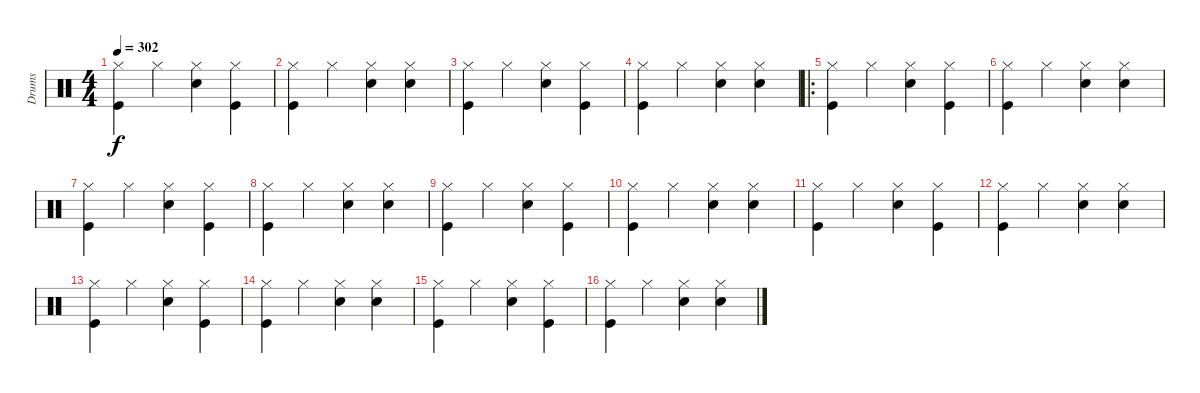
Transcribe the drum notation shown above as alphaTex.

\track ("Drums" "Drums") {instrument percussion}
\staff {score}
\articulation defaults
\ts (4 4)
\tempo 302
\clef neutral
\ks c
("Hi-Hat (closed)" "Kick (hit)").4{dy f} "Hi-Hat (closed)".4 ("Hi-Hat (closed)" "Snare (hit) 2").4 ("Hi-Hat (closed)" "Kick (hit)").4 |
("Hi-Hat (closed)" "Kick (hit)").4 "Hi-Hat (closed)".4 ("Hi-Hat (closed)" "Snare (hit) 2").4 ("Hi-Hat (closed)" "Snare (hit) 2").4 |
("Hi-Hat (closed)" "Kick (hit)").4 "Hi-Hat (closed)".4 ("Hi-Hat (closed)" "Snare (hit) 2").4 ("Kick (hit)" "Hi-Hat (closed)").4 |
("Hi-Hat (closed)" "Kick (hit)").4 "Hi-Hat (closed)".4 ("Hi-Hat (closed)" "Snare (hit) 2").4 ("Hi-Hat (closed)" "Snare (hit) 2").4 |
\ro
("Hi-Hat (closed)" "Kick (hit)").4 "Hi-Hat (closed)".4 ("Hi-Hat (closed)" "Snare (hit) 2").4 ("Kick (hit)" "Hi-Hat (closed)").4 |
("Hi-Hat (closed)" "Kick (hit)").4 "Hi-Hat (closed)".4 ("Hi-Hat (closed)" "Snare (hit) 2").4 ("Hi-Hat (closed)" "Snare (hit) 2").4 |
("Hi-Hat (closed)" "Kick (hit)").4 "Hi-Hat (closed)".4 ("Hi-Hat (closed)" "Snare (hit) 2").4 ("Kick (hit)" "Hi-Hat (closed)").4 |
("Hi-Hat (closed)" "Kick (hit)").4 "Hi-Hat (closed)".4 ("Hi-Hat (closed)" "Snare (hit) 2").4 ("Hi-Hat (closed)" "Snare (hit) 2").4 |
("Hi-Hat (closed)" "Kick (hit)").4 "Hi-Hat (closed)".4 ("Hi-Hat (closed)" "Snare (hit) 2").4 ("Kick (hit)" "Hi-Hat (closed)").4 |
("Hi-Hat (closed)" "Kick (hit)").4 "Hi-Hat (closed)".4 ("Hi-Hat (closed)" "Snare (hit) 2").4 ("Hi-Hat (closed)" "Snare (hit) 2").4 |
("Hi-Hat (closed)" "Kick (hit)").4 "Hi-Hat (closed)".4 ("Hi-Hat (closed)" "Snare (hit) 2").4 ("Kick (hit)" "Hi-Hat (closed)").4 |
("Hi-Hat (closed)" "Kick (hit)").4 "Hi-Hat (closed)".4 ("Hi-Hat (closed)" "Snare (hit) 2").4 ("Hi-Hat (closed)" "Snare (hit) 2").4 |
("Hi-Hat (closed)" "Kick (hit)").4 "Hi-Hat (closed)".4 ("Hi-Hat (closed)" "Snare (hit) 2").4 ("Kick (hit)" "Hi-Hat (closed)").4 |
("Hi-Hat (closed)" "Kick (hit)").4 "Hi-Hat (closed)".4 ("Hi-Hat (closed)" "Snare (hit) 2").4 ("Hi-Hat (closed)" "Snare (hit) 2").4 |
("Hi-Hat (closed)" "Kick (hit)").4 "Hi-Hat (closed)".4 ("Hi-Hat (closed)" "Snare (hit) 2").4 ("Kick (hit)" "Hi-Hat (closed)").4 |
("Hi-Hat (closed)" "Kick (hit)").4 "Hi-Hat (closed)".4 ("Hi-Hat (closed)" "Snare (hit) 2").4 ("Hi-Hat (closed)" "Snare (hit) 2").4
